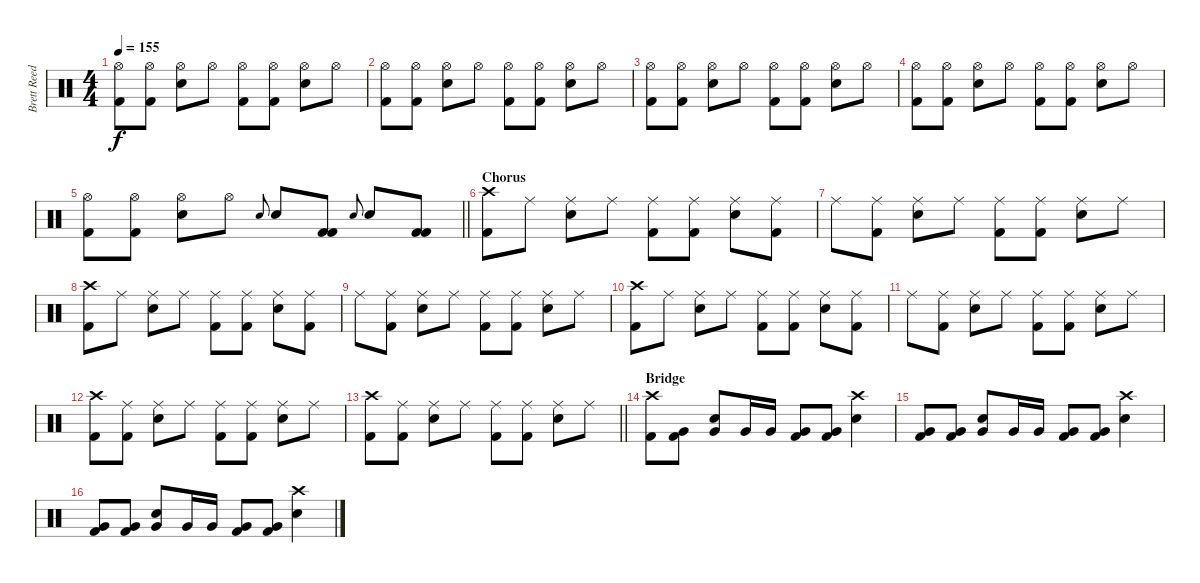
\track ("Brett Reed" "Brett Reed") {instrument percussion}
\staff {score}
\articulation defaults
\ts (4 4)
\tempo 155
\clef neutral
\ks c
("Hi-Hat (open)" "Kick (hit) 2").8{dy f} ("Hi-Hat (open)" "Kick (hit) 2").8 ("Hi-Hat (open)" "Electric Snare (hit)").8 "Hi-Hat (open)".8 ("Hi-Hat (open)" "Kick (hit) 2").8 ("Hi-Hat (open)" "Kick (hit) 2").8 ("Hi-Hat (open)" "Electric Snare (hit)").8 "Hi-Hat (open)".8 |
("Hi-Hat (open)" "Kick (hit) 2").8 ("Hi-Hat (open)" "Kick (hit) 2").8 ("Hi-Hat (open)" "Electric Snare (hit)").8 "Hi-Hat (open)".8 ("Hi-Hat (open)" "Kick (hit) 2").8 ("Hi-Hat (open)" "Kick (hit) 2").8 ("Hi-Hat (open)" "Electric Snare (hit)").8 "Hi-Hat (open)".8 |
("Hi-Hat (open)" "Kick (hit) 2").8 ("Hi-Hat (open)" "Kick (hit) 2").8 ("Hi-Hat (open)" "Electric Snare (hit)").8 "Hi-Hat (open)".8 ("Hi-Hat (open)" "Kick (hit) 2").8 ("Hi-Hat (open)" "Kick (hit) 2").8 ("Hi-Hat (open)" "Electric Snare (hit)").8 "Hi-Hat (open)".8 |
("Hi-Hat (open)" "Kick (hit) 2").8 ("Hi-Hat (open)" "Kick (hit) 2").8 ("Hi-Hat (open)" "Electric Snare (hit)").8 "Hi-Hat (open)".8 ("Hi-Hat (open)" "Kick (hit) 2").8 ("Hi-Hat (open)" "Kick (hit) 2").8 ("Hi-Hat (open)" "Electric Snare (hit)").8 "Hi-Hat (open)".8 |
\barLineRight lightlight
("Hi-Hat (open)" "Kick (hit) 2").8 ("Hi-Hat (open)" "Kick (hit) 2").8 ("Hi-Hat (open)" "Electric Snare (hit)").8 "Hi-Hat (open)".8 "Electric Snare (hit)".8{gr onbeat} "Electric Snare (hit)".8 ("Kick (hit) 2" "Kick (hit) 2").8 "Electric Snare (hit)".8{gr onbeat} "Electric Snare (hit)".8 ("Kick (hit) 2" "Kick (hit) 2").8 |
\section ("" "Chorus")
("Crash high (hit)" "Kick (hit) 2").8 "Ride (middle)".8 ("Ride (middle)" "Electric Snare (hit)").8 "Ride (middle)".8 ("Ride (middle)" "Kick (hit) 2").8 ("Ride (middle)" "Kick (hit) 2").8 ("Ride (middle)" "Electric Snare (hit)").8 ("Ride (middle)" "Kick (hit) 2").8 |
"Ride (middle)".8 ("Ride (middle)" "Kick (hit) 2").8 ("Ride (middle)" "Electric Snare (hit)").8 "Ride (middle)".8 ("Ride (middle)" "Kick (hit) 2").8 ("Ride (middle)" "Kick (hit) 2").8 ("Ride (middle)" "Electric Snare (hit)").8 "Ride (middle)".8 |
("Crash high (hit)" "Kick (hit) 2").8 "Ride (middle)".8 ("Ride (middle)" "Electric Snare (hit)").8 "Ride (middle)".8 ("Ride (middle)" "Kick (hit) 2").8 ("Ride (middle)" "Kick (hit) 2").8 ("Ride (middle)" "Electric Snare (hit)").8 ("Ride (middle)" "Kick (hit) 2").8 |
"Ride (middle)".8 ("Ride (middle)" "Kick (hit) 2").8 ("Ride (middle)" "Electric Snare (hit)").8 "Ride (middle)".8 ("Ride (middle)" "Kick (hit) 2").8 ("Ride (middle)" "Kick (hit) 2").8 ("Ride (middle)" "Electric Snare (hit)").8 "Ride (middle)".8 |
("Crash high (hit)" "Kick (hit) 2").8 "Ride (middle)".8 ("Ride (middle)" "Electric Snare (hit)").8 "Ride (middle)".8 ("Ride (middle)" "Kick (hit) 2").8 ("Ride (middle)" "Kick (hit) 2").8 ("Ride (middle)" "Electric Snare (hit)").8 ("Ride (middle)" "Kick (hit) 2").8 |
"Ride (middle)".8 ("Ride (middle)" "Kick (hit) 2").8 ("Ride (middle)" "Electric Snare (hit)").8 "Ride (middle)".8 ("Ride (middle)" "Kick (hit) 2").8 ("Ride (middle)" "Kick (hit) 2").8 ("Ride (middle)" "Electric Snare (hit)").8 "Ride (middle)".8 |
("Crash high (hit)" "Kick (hit) 2").8 ("Ride (middle)" "Kick (hit) 2").8 ("Ride (middle)" "Electric Snare (hit)").8 "Ride (middle)".8 ("Ride (middle)" "Kick (hit) 2").8 ("Ride (middle)" "Kick (hit) 2").8 ("Ride (middle)" "Electric Snare (hit)").8 "Ride (middle)".8 |
\barLineRight lightlight
("Crash high (hit)" "Kick (hit) 2").8 ("Ride (middle)" "Kick (hit) 2").8 ("Ride (middle)" "Electric Snare (hit)").8 "Ride (middle)".8 ("Ride (middle)" "Kick (hit) 2").8 ("Ride (middle)" "Kick (hit) 2").8 ("Ride (middle)" "Electric Snare (hit)").8 "Ride (middle)".8 |
\section ("" "Bridge")
("Crash high (hit)" "Kick (hit) 2").8 ("Very Low Tom (hit)" "Kick (hit) 2").8 ("Very Low Tom (hit)" "Electric Snare (hit)").8 "Very Low Tom (hit)".16 "Very Low Tom (hit)".16 ("Very Low Tom (hit)" "Kick (hit) 2").8 ("Very Low Tom (hit)" "Kick (hit) 2").8 ("Crash high (hit)" "Electric Snare (hit)").4 |
("Very Low Tom (hit)" "Kick (hit) 2").8 ("Very Low Tom (hit)" "Kick (hit) 2").8 ("Very Low Tom (hit)" "Electric Snare (hit)").8 "Very Low Tom (hit)".16 "Very Low Tom (hit)".16 ("Very Low Tom (hit)" "Kick (hit) 2").8 ("Very Low Tom (hit)" "Kick (hit) 2").8 ("Crash high (hit)" "Electric Snare (hit)").4 |
("Very Low Tom (hit)" "Kick (hit) 2").8 ("Very Low Tom (hit)" "Kick (hit) 2").8 ("Very Low Tom (hit)" "Electric Snare (hit)").8 "Very Low Tom (hit)".16 "Very Low Tom (hit)".16 ("Very Low Tom (hit)" "Kick (hit) 2").8 ("Very Low Tom (hit)" "Kick (hit) 2").8 ("Crash high (hit)" "Electric Snare (hit)").4
